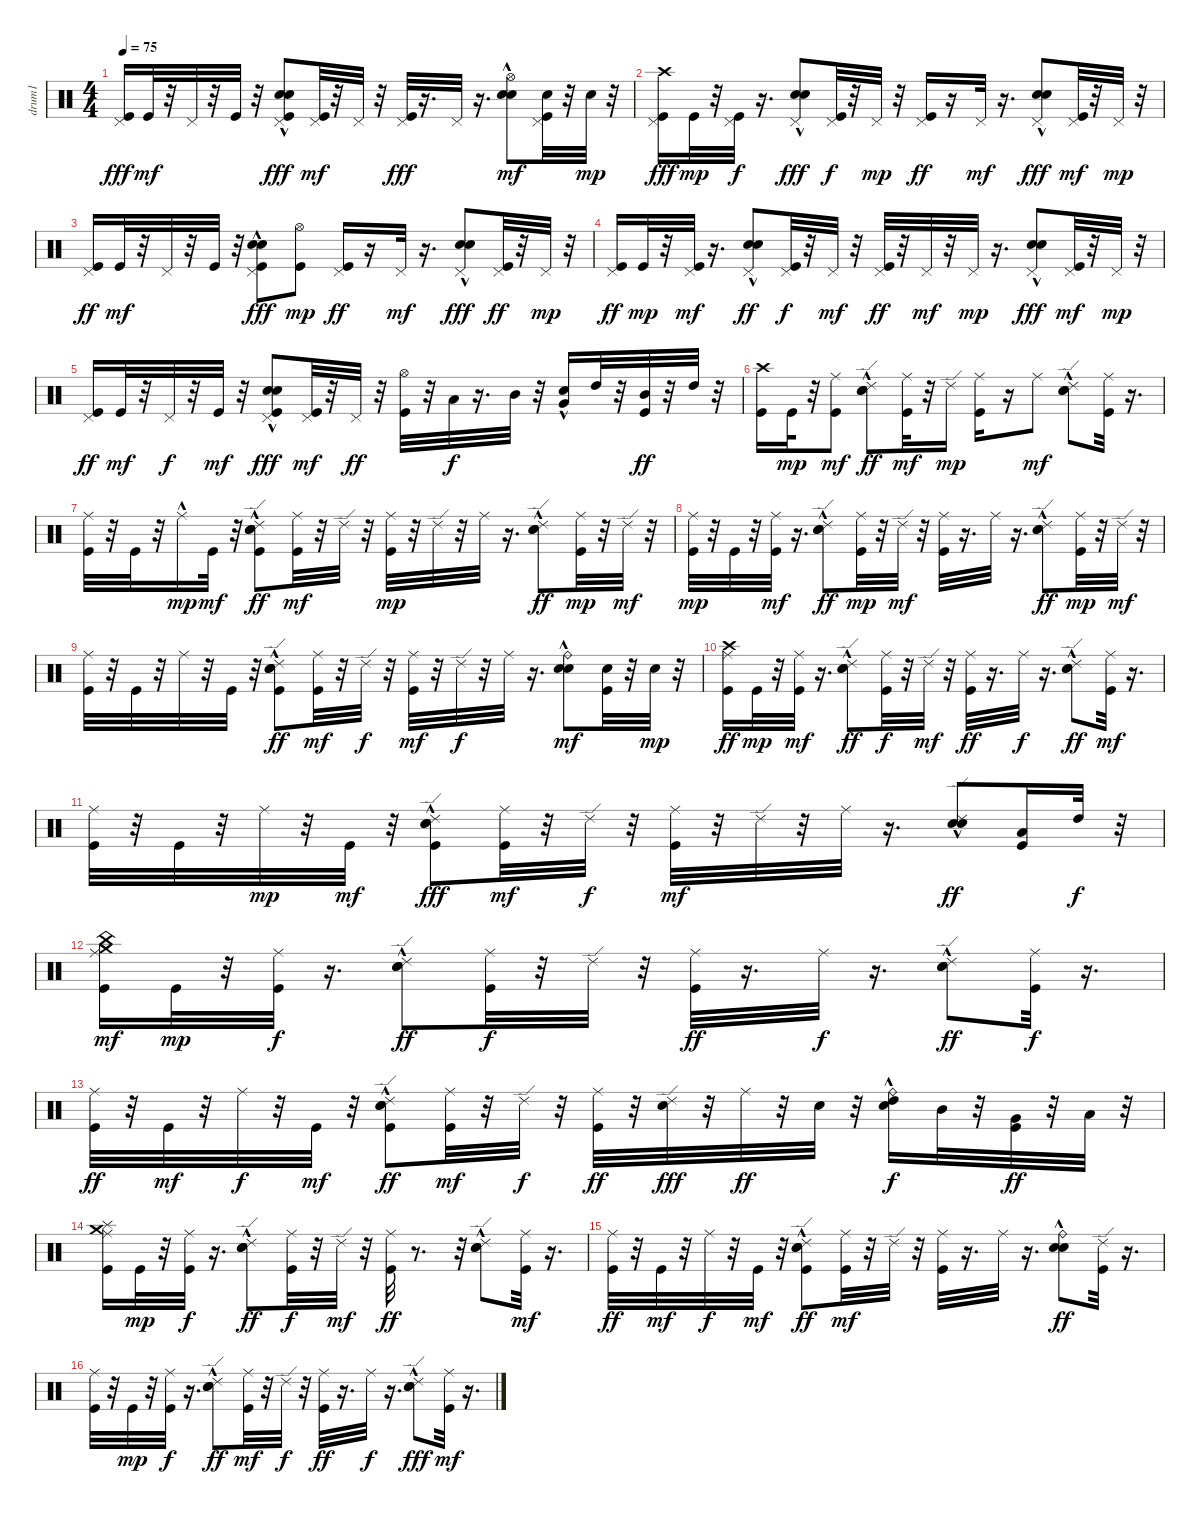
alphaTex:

\track ("drum1" "drum1") {instrument percussion}
\staff {score}
\articulation defaults
\ts (4 4)
\tempo 75
\clef neutral
\ks c
("Kick (hit)" "Pedal Hi-Hat (hit)").16{dy fff} "Kick (hit)".32{dy mf} r.32 "Pedal Hi-Hat (hit)".32 r.32 "Kick (hit)".32 r.32 ("Kick (hit)" "Hand Clap (hit)"{hac} "Electric Snare (hit)" "Pedal Hi-Hat (hit)").8{dy fff} ("Kick (hit)" "Pedal Hi-Hat (hit)").32{dy mf} r.32 "Pedal Hi-Hat (hit)".32 r.32 ("Kick (hit)" "Pedal Hi-Hat (hit)").32{dy fff} r.16{d} "Pedal Hi-Hat (hit)".32 r.16{d} ("Hand Clap (hit)"{hac} "Electric Snare (hit)" "Hi-Hat (open)").8{dy mf} ("Kick (hit)" "Electric Snare (hit)" "Pedal Hi-Hat (hit)").32 r.32 "Electric Snare (hit)".32{dy mp} r.32 |
("Kick (hit)" "Pedal Hi-Hat (hit)" "Crash high (hit)").16{dy fff} "Kick (hit)".32{dy mp} r.32 ("Kick (hit)" "Pedal Hi-Hat (hit)").32{dy f} r.16{d} ("Hand Clap (hit)"{hac} "Electric Snare (hit)" "Pedal Hi-Hat (hit)").8{dy fff} ("Kick (hit)" "Pedal Hi-Hat (hit)").32{dy f} r.32 "Pedal Hi-Hat (hit)".32{dy mp} r.32 ("Kick (hit)" "Pedal Hi-Hat (hit)").16{dy ff} r.16 "Pedal Hi-Hat (hit)".32{dy mf} r.16{d} ("Hand Clap (hit)"{hac} "Electric Snare (hit)" "Pedal Hi-Hat (hit)").8{dy fff} ("Kick (hit)" "Pedal Hi-Hat (hit)").32{dy mf} r.32 "Pedal Hi-Hat (hit)".32{dy mp} r.32 |
("Kick (hit)" "Pedal Hi-Hat (hit)").16{dy ff} "Kick (hit)".32{dy mf} r.32 "Pedal Hi-Hat (hit)".32 r.32 "Kick (hit)".32 r.32 ("Kick (hit)" "Hand Clap (hit)"{hac} "Electric Snare (hit)" "Pedal Hi-Hat (hit)").8{dy fff} ("Kick (hit)" "Hi-Hat (open)").8{dy mp} ("Kick (hit)" "Pedal Hi-Hat (hit)").16{dy ff} r.16 "Pedal Hi-Hat (hit)".32{dy mf} r.16{d} ("Hand Clap (hit)"{hac} "Electric Snare (hit)" "Pedal Hi-Hat (hit)").8{dy fff} ("Kick (hit)" "Pedal Hi-Hat (hit)").32{dy ff} r.32 "Pedal Hi-Hat (hit)".32{dy mp} r.32 |
("Kick (hit)" "Pedal Hi-Hat (hit)").16{dy ff} "Kick (hit)".32{dy mp} r.32 ("Kick (hit)" "Pedal Hi-Hat (hit)").32{dy mf} r.16{d} ("Hand Clap (hit)"{hac} "Electric Snare (hit)"{hac} "Pedal Hi-Hat (hit)").8{dy ff} ("Kick (hit)" "Pedal Hi-Hat (hit)").32{dy f} r.32 "Pedal Hi-Hat (hit)".32{dy mf} r.32 ("Kick (hit)" "Pedal Hi-Hat (hit)").32{dy ff} r.32 "Pedal Hi-Hat (hit)".32{dy mf} r.32 "Pedal Hi-Hat (hit)".32{dy mp} r.16{d} ("Hand Clap (hit)"{hac} "Electric Snare (hit)" "Pedal Hi-Hat (hit)").8{dy fff} ("Kick (hit)" "Pedal Hi-Hat (hit)").32{dy mf} r.32 "Pedal Hi-Hat (hit)".32{dy mp} r.32 |
("Kick (hit)" "Pedal Hi-Hat (hit)").16{dy ff} "Kick (hit)".32{dy mf} r.32 "Pedal Hi-Hat (hit)".32{dy f} r.32 "Kick (hit)".32{dy mf} r.32 ("Kick (hit)" "Hand Clap (hit)"{hac} "Electric Snare (hit)" "Pedal Hi-Hat (hit)").8{dy fff} ("Kick (hit)" "Pedal Hi-Hat (hit)").32{dy mf} r.32 "Pedal Hi-Hat (hit)".32{dy ff} r.32 ("Kick (hit)" "Hi-Hat (open)").32 r.32 "Low Floor Tom (hit)".32{dy f} r.16{d} "Mid Tom (hit)".32 r.32 ("Hand Clap (hit)"{hac} "Very Low Tom (hit)").16 "High Tom (hit)".32 r.32 ("Kick (hit)" "Mid Tom (hit)").32{dy ff} r.32 "High Tom (hit)".32 r.32 |
("Kick (hit)" "Crash high (hit)").16 "Kick (hit)".32{dy mp} r.32 ("Kick (hit)" "Ride (middle)").8{dy mf} ("Hand Clap (hit)"{hac} "Electric Snare (hit)" "Ride (edge) 2").8{dy ff} ("Kick (hit)" "Ride (middle)").32{dy mf} r.32 "Ride (edge) 2".16{dy mp} ("Kick (hit)" "Ride (middle)").16 r.16 "Ride (middle)".8{dy mf} ("Hand Clap (hit)"{hac} "Electric Snare (hit)" "Ride (edge) 2").8 ("Kick (hit)" "Ride (middle)").32 r.16{d} |
("Kick (hit)" "Ride (middle)").32 r.32 "Kick (hit)".32 r.32 "Ride (middle)"{hac}.16{dy mp} "Kick (hit)".32{dy mf} r.32 ("Kick (hit)" "Hand Clap (hit)"{hac} "Electric Snare (hit)" "Ride (edge) 2").8{dy ff} ("Kick (hit)" "Ride (middle)").32{dy mf} r.32 "Ride (edge) 2".32 r.32 ("Kick (hit)" "Ride (middle)").32{dy mp} r.32 "Ride (edge) 2".32 r.32 "Ride (middle)".32 r.16{d} ("Hand Clap (hit)"{hac} "Electric Snare (hit)" "Ride (edge) 2").8{dy ff} ("Kick (hit)" "Ride (middle)").32{dy mp} r.32 "Ride (edge) 2".32{dy mf} r.32 |
("Kick (hit)" "Ride (middle)").32{dy mp} r.32 "Kick (hit)".32 r.32 ("Kick (hit)" "Ride (middle)").32{dy mf} r.16{d} ("Hand Clap (hit)"{hac} "Electric Snare (hit)" "Ride (edge) 2").8{dy ff} ("Kick (hit)" "Ride (middle)").32{dy mp} r.32 "Ride (edge) 2".32{dy mf} r.32 ("Kick (hit)" "Ride (middle)").32 r.16{d} "Ride (middle)".32 r.16{d} ("Hand Clap (hit)"{hac} "Electric Snare (hit)" "Ride (edge) 2").8{dy ff} ("Kick (hit)" "Ride (middle)").32{dy mp} r.32 "Ride (edge) 2".32{dy mf} r.32 |
("Kick (hit)" "Ride (middle)").32 r.32 "Kick (hit)".32 r.32 "Ride (middle)".32 r.32 "Kick (hit)".32 r.32 ("Kick (hit)" "Hand Clap (hit)"{hac} "Electric Snare (hit)" "Ride (edge) 2").8{dy ff} ("Kick (hit)" "Ride (middle)").32{dy mf} r.32 "Ride (edge) 2".32{dy f} r.32 ("Kick (hit)" "Ride (middle)").32{dy mf} r.32 "Ride (edge) 2".32{dy f} r.32 "Ride (middle)".32 r.16{d} ("Hand Clap (hit)"{hac} "Electric Snare (hit)" "Ride (bell)").8{dy mf} ("Kick (hit)" "Electric Snare (hit)").32 r.32 "Electric Snare (hit)".32{dy mp} r.32 |
("Kick (hit)" "Crash high (hit)" "Ride (middle)").16{dy ff} "Kick (hit)".32{dy mp} r.32 ("Kick (hit)" "Ride (middle)").32{dy mf} r.16{d} ("Hand Clap (hit)"{hac} "Electric Snare (hit)" "Ride (edge) 2").8{dy ff} ("Kick (hit)" "Ride (middle)").32{dy f} r.32 "Ride (edge) 2".32{dy mf} r.32 ("Kick (hit)" "Ride (middle)").32{dy ff} r.16{d} "Ride (middle)".32{dy f} r.16{d} ("Hand Clap (hit)"{hac} "Electric Snare (hit)" "Ride (edge) 2").8{dy ff} ("Kick (hit)" "Ride (middle)").32{dy mf} r.16{d} |
("Kick (hit)" "Ride (middle)").32 r.32 "Kick (hit)".32 r.32 "Ride (middle)".32{dy mp} r.32 "Kick (hit)".32{dy mf} r.32 ("Kick (hit)" "Hand Clap (hit)"{hac} "Electric Snare (hit)" "Ride (edge) 2").8{dy fff} ("Kick (hit)" "Ride (middle)").32{dy mf} r.32 "Ride (edge) 2".32{dy f} r.32 ("Kick (hit)" "Ride (middle)").32{dy mf} r.32 "Ride (edge) 2".32 r.32 "Ride (middle)".32 r.16{d} ("Hand Clap (hit)"{hac} "Electric Snare (hit)" "Ride (edge) 2").8{dy ff} ("Kick (hit)" "Low Tom (hit)").16 "High Tom (hit)".32{dy f} r.32 |
("Kick (hit)" "Ride (middle)" "China (hit)" "Crash medium (hit)").16{dy mf} "Kick (hit)".32{dy mp} r.32 ("Kick (hit)" "Ride (middle)").32{dy f} r.16{d} ("Hand Clap (hit)"{hac} "Electric Snare (hit)" "Ride (edge) 2").8{dy ff} ("Kick (hit)" "Ride (middle)").32{dy f} r.32 "Ride (edge) 2".32 r.32 ("Kick (hit)" "Ride (middle)").32{dy ff} r.16{d} "Ride (middle)".32{dy f} r.16{d} ("Hand Clap (hit)"{hac} "Electric Snare (hit)" "Ride (edge) 2").8{dy ff} ("Kick (hit)" "Ride (middle)").32{dy f} r.16{d} |
("Kick (hit)" "Ride (middle)").32{dy ff} r.32 "Kick (hit)".32{dy mf} r.32 "Ride (middle)".32{dy f} r.32 "Kick (hit)".32{dy mf} r.32 ("Kick (hit)" "Hand Clap (hit)"{hac} "Electric Snare (hit)" "Ride (edge) 2").8{dy ff} ("Kick (hit)" "Ride (middle)").32{dy mf} r.32 "Ride (edge) 2".32{dy f} r.32 ("Kick (hit)" "Ride (middle)").32{dy ff} r.32 ("Electric Snare (hit)" "Ride (edge) 2").32{dy fff} r.32 "Ride (middle)".32{dy ff} r.32 "Electric Snare (hit)".32 r.32 ("Hand Clap (hit)"{hac} "High Tom (hit)" "Ride (bell)").16{dy f} "Mid Tom (hit)".32 r.32 ("Kick (hit)" "Very Low Tom (hit)").32{dy ff} r.32 "Low Tom (hit)".32 r.32 |
("Splash (hit)" "Crash medium (hit)" "Kick (hit)" "Ride (middle)").16 "Kick (hit)".32{dy mp} r.32 ("Kick (hit)" "Ride (middle)").32{dy f} r.16{d} ("Hand Clap (hit)"{hac} "Electric Snare (hit)" "Ride (edge) 2").8{dy ff} ("Kick (hit)" "Ride (middle)").32{dy f} r.32 "Ride (edge) 2".32{dy mf} r.32 ("Kick (hit)" "Ride (middle)").32{dy ff} r.8{d} r.32 ("Hand Clap (hit)"{hac} "Electric Snare (hit)" "Ride (edge) 2").8 ("Kick (hit)" "Ride (middle)").32{dy mf} r.16{d} |
("Kick (hit)" "Ride (middle)").32{dy ff} r.32 "Kick (hit)".32{dy mf} r.32 "Ride (middle)".32{dy f} r.32 "Kick (hit)".32{dy mf} r.32 ("Kick (hit)" "Hand Clap (hit)"{hac} "Electric Snare (hit)" "Ride (edge) 2").8{dy ff} ("Kick (hit)" "Ride (middle)").32{dy mf} r.32 "Ride (edge) 2".32 r.32 ("Kick (hit)" "Ride (middle)").32 r.16{d} "Ride (middle)".32 r.16{d} ("Hand Clap (hit)"{hac} "Electric Snare (hit)" "Ride (bell)").8{dy ff} ("Kick (hit)" "Ride (edge) 2").32 r.16{d} |
("Kick (hit)" "Ride (middle)").32 r.32 "Kick (hit)".32{dy mp} r.32 ("Kick (hit)" "Ride (middle)").32{dy f} r.16{d} ("Hand Clap (hit)"{hac} "Electric Snare (hit)" "Ride (edge) 2").8{dy ff} ("Kick (hit)" "Ride (middle)").32{dy mf} r.32 "Ride (edge) 2".32{dy f} r.32 ("Kick (hit)" "Ride (middle)").32{dy ff} r.16{d} "Ride (middle)".32{dy f} r.16{d} ("Hand Clap (hit)"{hac} "Electric Snare (hit)" "Ride (edge) 2").8{dy fff} ("Kick (hit)" "Ride (middle)").32{dy mf} r.16{d}
